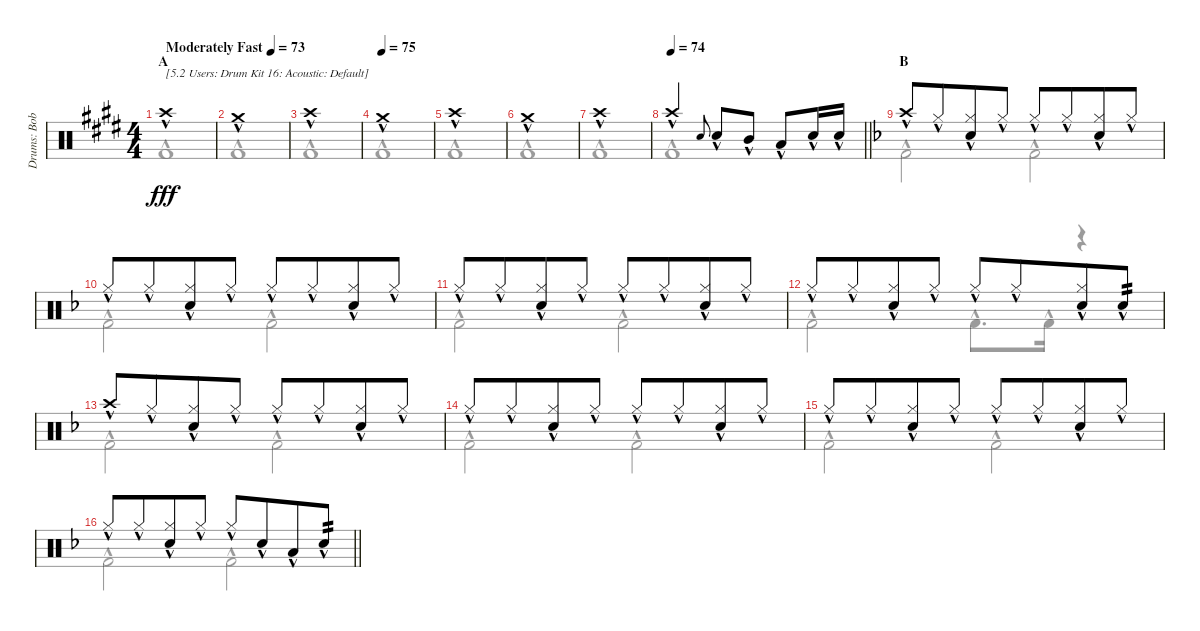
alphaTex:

\track ("Drums: Bobby" "Drums: Bob") {instrument percussion}
\staff {score}
\articulation defaults
\voice
\ts (4 4)
\section ("" "A")
\tempo (73 "Moderately Fast")
\clef neutral
\ks e "Crash high (hit)"{hac}.1{txt "[5.2 Users: Drum Kit 16: Acoustic: Default]" dy fff}
|
"Crash medium (hit)"{hac}.1 |
"Crash high (hit)"{hac}.1 |
\tempo (75)
"Crash medium (hit)"{hac}.1 |
"Crash high (hit)"{hac}.1 |
"Crash medium (hit)"{hac}.1 |
"Crash high (hit)"{hac}.1 |
\tempo 74
\barLineRight lightlight "Crash high (hit)"{hac}.2 "Electric Snare (hit)".8{gr onbeat} "Snare (hit) 2"{hac}.8 "Mid Tom (hit)"{hac}.8 "Low Tom (hit)"{hac}.8 "Snare (hit) 2"{hac}.16 "Snare (hit) 2"{hac}.16
|
\section ("" "B")
\ks f "Crash high (hit)"{hac}.8 "Hi-Hat (closed)"{hac}.8{beam merge}
("Hi-Hat (closed)"{hac} "Snare (hit) 2"{hac}).8 "Hi-Hat (closed)"{hac}.8 "Hi-Hat (closed)"{hac}.8 "Hi-Hat (closed)"{hac}.8{beam merge} ("Hi-Hat (closed)"{hac} "Snare (hit) 2"{hac}).8 "Hi-Hat (closed)"{hac}.8 |
"Hi-Hat (closed)"{hac}.8 "Hi-Hat (closed)"{hac}.8{beam merge} ("Hi-Hat (closed)"{hac} "Snare (hit) 2"{hac}).8 "Hi-Hat (closed)"{hac}.8 "Hi-Hat (closed)"{hac}.8 "Hi-Hat (closed)"{hac}.8{beam merge} ("Hi-Hat (closed)"{hac} "Snare (hit) 2"{hac}).8 "Hi-Hat (closed)"{hac}.8 |
"Hi-Hat (closed)"{hac}.8 "Hi-Hat (closed)"{hac}.8{beam merge} ("Hi-Hat (closed)"{hac} "Snare (hit) 2"{hac}).8 "Hi-Hat (closed)"{hac}.8 "Hi-Hat (closed)"{hac}.8 "Hi-Hat (closed)"{hac}.8{beam merge} ("Hi-Hat (closed)"{hac} "Snare (hit) 2"{hac}).8 "Hi-Hat (closed)"{hac}.8 |
"Hi-Hat (closed)"{hac}.8 "Hi-Hat (closed)"{hac}.8{beam merge} ("Hi-Hat (closed)"{hac} "Snare (hit) 2"{hac}).8 "Hi-Hat (closed)"{hac}.8 "Hi-Hat (closed)"{hac}.8 "Hi-Hat (closed)"{hac}.8{beam merge} ("Hi-Hat (closed)"{hac} "Snare (hit) 2"{hac}).8 "Electric Snare (hit)"{hac}.8{tp 2} |
"Crash high (hit)"{hac}.8 "Hi-Hat (closed)"{hac}.8{beam merge} ("Hi-Hat (closed)"{hac} "Snare (hit) 2"{hac}).8 "Hi-Hat (closed)"{hac}.8 "Hi-Hat (closed)"{hac}.8 "Hi-Hat (closed)"{hac}.8{beam merge} ("Hi-Hat (closed)"{hac} "Snare (hit) 2"{hac}).8 "Hi-Hat (closed)"{hac}.8 |
"Hi-Hat (closed)"{hac}.8 "Hi-Hat (closed)"{hac}.8{beam merge} ("Hi-Hat (closed)"{hac} "Snare (hit) 2"{hac}).8 "Hi-Hat (closed)"{hac}.8 "Hi-Hat (closed)"{hac}.8 "Hi-Hat (closed)"{hac}.8{beam merge} ("Hi-Hat (closed)"{hac} "Snare (hit) 2"{hac}).8 "Hi-Hat (closed)"{hac}.8 |
"Hi-Hat (closed)"{hac}.8 "Hi-Hat (closed)"{hac}.8{beam merge} ("Hi-Hat (closed)"{hac} "Snare (hit) 2"{hac}).8 "Hi-Hat (closed)"{hac}.8 "Hi-Hat (closed)"{hac}.8 "Hi-Hat (closed)"{hac}.8{beam merge} ("Hi-Hat (closed)"{hac} "Snare (hit) 2"{hac}).8 "Hi-Hat (closed)"{hac}.8 |
\barLineRight lightlight "Hi-Hat (closed)"{hac}.8 "Hi-Hat (closed)"{hac}.8{beam merge}
("Hi-Hat (closed)"{hac} "Snare (hit) 2"{hac}).8 "Hi-Hat (closed)"{hac}.8 "Hi-Hat (closed)"{hac}.8 "Snare (hit) 2"{hac}.8{beam merge} "Low Tom (hit)"{hac}.8 "Electric Snare (hit)"{hac}.8{tp 2}
\voice
\clef neutral
\ottava regular
\simile none
\ks e "Kick (hit) 2"{hac}.1{dy fff}
|
"Kick (hit) 2"{hac}.1 |
"Kick (hit) 2"{hac}.1 |
"Kick (hit) 2"{hac}.1 |
"Kick (hit) 2"{hac}.1 |
"Kick (hit) 2"{hac}.1 |
"Kick (hit) 2"{hac}.1 |
\barLineRight lightlight "Kick (hit) 2"{hac}.1
|
\ks f "Kick (hit) 2"{hac}.2 "Kick (hit) 2"{hac}.2
|
"Kick (hit) 2"{hac}.2 "Kick (hit) 2"{hac}.2 |
"Kick (hit) 2"{hac}.2 "Kick (hit) 2"{hac}.2 |
"Kick (hit) 2"{hac}.2 "Kick (hit) 2"{hac}.8{d} "Kick (hit) 2"{hac}.16 r.4 |
"Kick (hit) 2"{hac}.2 "Kick (hit) 2"{hac}.2 |
"Kick (hit) 2"{hac}.2 "Kick (hit) 2"{hac}.2 |
"Kick (hit) 2"{hac}.2 "Kick (hit) 2"{hac}.2 |
\barLineRight lightlight "Kick (hit) 2"{hac}.2 "Kick (hit) 2"{hac}.2
